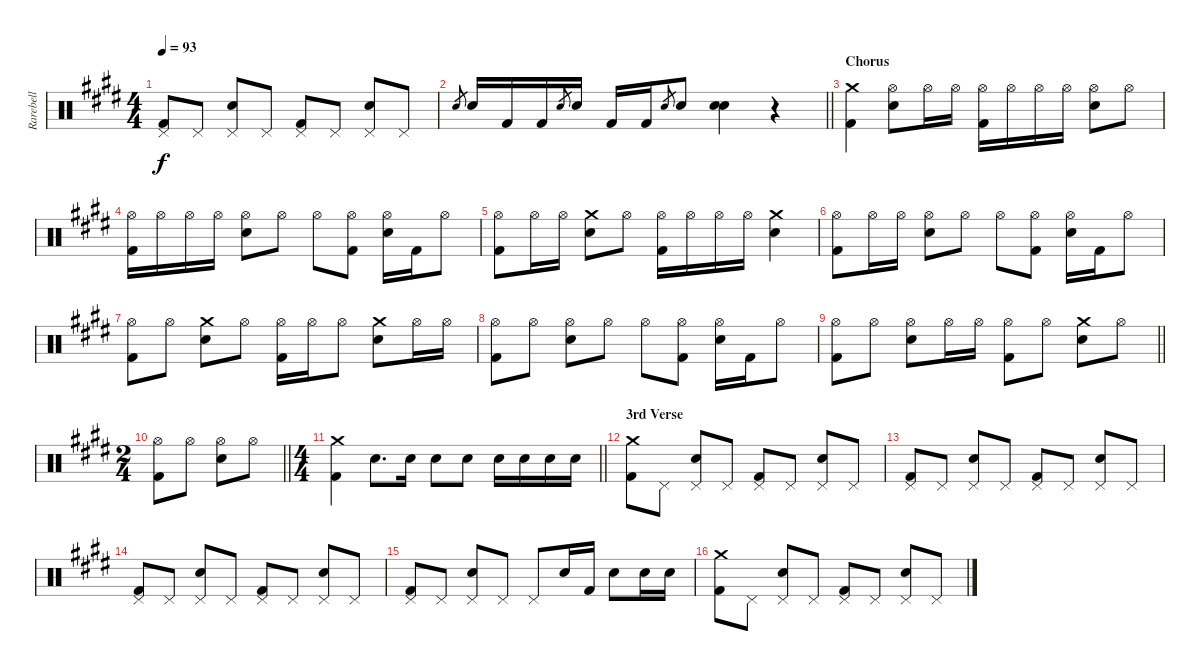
\track ("Rarebell" "Rarebell") {instrument percussion}
\staff {score}
\articulation defaults
\ts (4 4)
\tempo 93
\clef neutral
\ks e
("Pedal Hi-Hat (hit)" "Kick (hit) 2").8{dy f} "Pedal Hi-Hat (hit)".8 ("Pedal Hi-Hat (hit)" "Snare (hit) 2").8 "Pedal Hi-Hat (hit)".8 ("Pedal Hi-Hat (hit)" "Kick (hit) 2").8 "Pedal Hi-Hat (hit)".8 ("Pedal Hi-Hat (hit)" "Snare (hit) 2").8 "Pedal Hi-Hat (hit)".8 |
\barLineRight lightlight "Snare (hit) 2".8{gr} "Snare (hit) 2".16 "Kick (hit) 2".16 "Kick (hit) 2".16 "Snare (hit) 2".8{gr} "Snare (hit) 2".16 "Kick (hit) 2".16 "Kick (hit) 2".16 "Snare (hit) 2".8{gr} "Snare (hit) 2".8
("Snare (hit) 2" "Snare (hit) 2").4 r.4 |
\section ("" "Chorus")
("Crash medium (hit)" "Kick (hit) 2").4 ("Hi-Hat (open)" "Snare (hit) 2").8 "Hi-Hat (open)".16 "Hi-Hat (open)".16 ("Hi-Hat (open)" "Kick (hit) 2").16 "Hi-Hat (open)".16 "Hi-Hat (open)".16 "Hi-Hat (open)".16 ("Hi-Hat (open)" "Snare (hit) 2").8 "Hi-Hat (open)".8 |
("Hi-Hat (open)" "Kick (hit) 2").16 "Hi-Hat (open)".16 "Hi-Hat (open)".16 "Hi-Hat (open)".16 ("Hi-Hat (open)" "Snare (hit) 2").8 "Hi-Hat (open)".8 "Hi-Hat (open)".8 ("Hi-Hat (open)" "Kick (hit) 2").8 ("Hi-Hat (open)" "Snare (hit) 2").16 "Kick (hit) 2".16 "Hi-Hat (open)".8 |
("Hi-Hat (open)" "Kick (hit) 2").8 "Hi-Hat (open)".16 "Hi-Hat (open)".16 ("Crash medium (hit)" "Snare (hit) 2").8 "Hi-Hat (open)".8 ("Hi-Hat (open)" "Kick (hit) 2").16 "Hi-Hat (open)".16 "Hi-Hat (open)".16 "Hi-Hat (open)".16 ("Crash medium (hit)" "Snare (hit) 2").4 |
("Hi-Hat (open)" "Kick (hit) 2").8 "Hi-Hat (open)".16 "Hi-Hat (open)".16 ("Hi-Hat (open)" "Snare (hit) 2").8 "Hi-Hat (open)".8 "Hi-Hat (open)".8 ("Hi-Hat (open)" "Kick (hit) 2").8 ("Hi-Hat (open)" "Snare (hit) 2").16 "Kick (hit) 2".16 "Hi-Hat (open)".8 |
("Hi-Hat (open)" "Kick (hit) 2").8 "Hi-Hat (open)".8 ("Crash medium (hit)" "Snare (hit) 2").8 "Hi-Hat (open)".8 ("Hi-Hat (open)" "Kick (hit) 2").16 "Hi-Hat (open)".16 "Hi-Hat (open)".8 ("Crash medium (hit)" "Snare (hit) 2").8 "Hi-Hat (open)".16 "Hi-Hat (open)".16 |
("Hi-Hat (open)" "Kick (hit) 2").8 "Hi-Hat (open)".8 ("Hi-Hat (open)" "Snare (hit) 2").8 "Hi-Hat (open)".8 "Hi-Hat (open)".8 ("Hi-Hat (open)" "Kick (hit) 2").8 ("Hi-Hat (open)" "Snare (hit) 2").16 "Kick (hit) 2".16 "Hi-Hat (open)".8 |
\barLineRight lightlight
("Hi-Hat (open)" "Kick (hit) 2").8 "Hi-Hat (open)".8 ("Hi-Hat (open)" "Snare (hit) 2").8 "Hi-Hat (open)".16 "Hi-Hat (open)".16 ("Hi-Hat (open)" "Kick (hit) 2").8 "Hi-Hat (open)".8 ("Crash medium (hit)" "Snare (hit) 2").8 "Hi-Hat (open)".8 |
\ts (2 4)
\barLineRight lightlight
("Hi-Hat (open)" "Kick (hit) 2").8 "Hi-Hat (open)".8 ("Hi-Hat (open)" "Snare (hit) 2").8 "Hi-Hat (open)".8 |
\ts (4 4)
\barLineRight lightlight
("Crash medium (hit)" "Kick (hit) 2").4 "Snare (hit) 2".8{d} "Snare (hit) 2".16 "Snare (hit) 2".8 "Snare (hit) 2".8 "Snare (hit) 2".16 "Snare (hit) 2".16 "Snare (hit) 2".16 "Snare (hit) 2".16 |
\section ("" "3rd Verse")
("Crash medium (hit)" "Kick (hit) 2").8 "Pedal Hi-Hat (hit)".8 ("Pedal Hi-Hat (hit)" "Snare (hit) 2").8 "Pedal Hi-Hat (hit)".8 ("Pedal Hi-Hat (hit)" "Kick (hit) 2").8 "Pedal Hi-Hat (hit)".8 ("Pedal Hi-Hat (hit)" "Snare (hit) 2").8 "Pedal Hi-Hat (hit)".8 |
("Pedal Hi-Hat (hit)" "Kick (hit) 2").8 "Pedal Hi-Hat (hit)".8 ("Pedal Hi-Hat (hit)" "Snare (hit) 2").8 "Pedal Hi-Hat (hit)".8 ("Pedal Hi-Hat (hit)" "Kick (hit) 2").8 "Pedal Hi-Hat (hit)".8 ("Pedal Hi-Hat (hit)" "Snare (hit) 2").8 "Pedal Hi-Hat (hit)".8 |
("Pedal Hi-Hat (hit)" "Kick (hit) 2").8 "Pedal Hi-Hat (hit)".8 ("Pedal Hi-Hat (hit)" "Snare (hit) 2").8 "Pedal Hi-Hat (hit)".8 ("Pedal Hi-Hat (hit)" "Kick (hit) 2").8 "Pedal Hi-Hat (hit)".8 ("Pedal Hi-Hat (hit)" "Snare (hit) 2").8 "Pedal Hi-Hat (hit)".8 |
("Pedal Hi-Hat (hit)" "Kick (hit) 2").8 "Pedal Hi-Hat (hit)".8 ("Pedal Hi-Hat (hit)" "Snare (hit) 2").8 "Pedal Hi-Hat (hit)".8 "Pedal Hi-Hat (hit)".8 "Snare (hit) 2".16 "Kick (hit) 2".16 "Snare (hit) 2".8 "Snare (hit) 2".16 "Snare (hit) 2".16 |
("Crash medium (hit)" "Kick (hit) 2").8 "Pedal Hi-Hat (hit)".8 ("Pedal Hi-Hat (hit)" "Snare (hit) 2").8 "Pedal Hi-Hat (hit)".8 ("Pedal Hi-Hat (hit)" "Kick (hit) 2").8 "Pedal Hi-Hat (hit)".8 ("Pedal Hi-Hat (hit)" "Snare (hit) 2").8 "Pedal Hi-Hat (hit)".8
